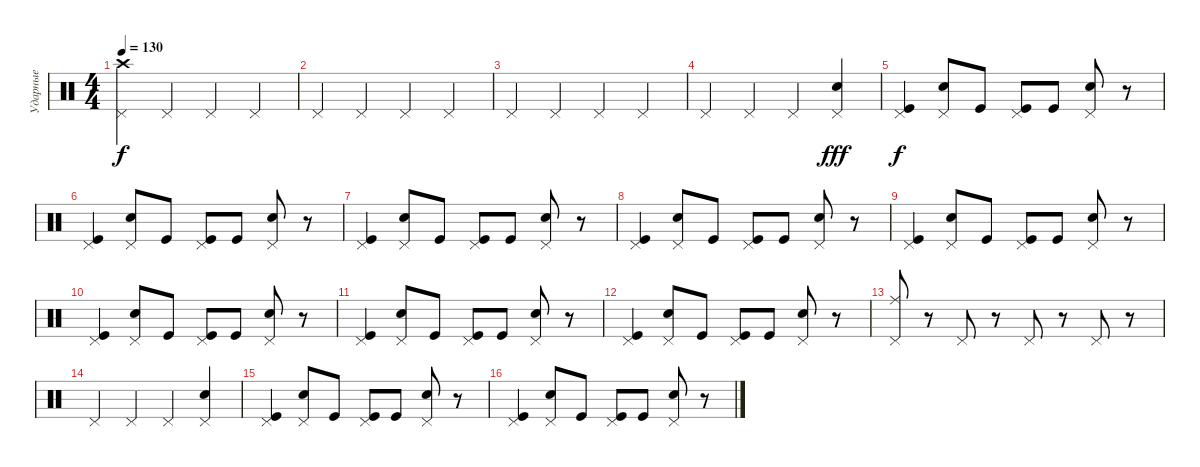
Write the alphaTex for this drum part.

\track ("Ударные" "Ударные") {instrument percussion}
\staff {score}
\articulation defaults
\ts (4 4)
\tempo 130
\clef neutral
\ks c
("Crash high (hit)" "Pedal Hi-Hat (hit)").4{dy f} "Pedal Hi-Hat (hit)".4 "Pedal Hi-Hat (hit)".4 "Pedal Hi-Hat (hit)".4 |
"Pedal Hi-Hat (hit)".4 "Pedal Hi-Hat (hit)".4 "Pedal Hi-Hat (hit)".4 "Pedal Hi-Hat (hit)".4 |
"Pedal Hi-Hat (hit)".4 "Pedal Hi-Hat (hit)".4 "Pedal Hi-Hat (hit)".4 "Pedal Hi-Hat (hit)".4 |
"Pedal Hi-Hat (hit)".4 "Pedal Hi-Hat (hit)".4 "Pedal Hi-Hat (hit)".4 ("Electric Snare (hit)" "Pedal Hi-Hat (hit)").4{dy fff} |
("Pedal Hi-Hat (hit)" "Kick (hit)").4{dy f} ("Pedal Hi-Hat (hit)" "Electric Snare (hit)").8 "Kick (hit)".8 ("Pedal Hi-Hat (hit)" "Kick (hit)").8 "Kick (hit)".8 ("Pedal Hi-Hat (hit)" "Electric Snare (hit)").8 r.8 |
("Pedal Hi-Hat (hit)" "Kick (hit)").4 ("Pedal Hi-Hat (hit)" "Electric Snare (hit)").8 "Kick (hit)".8 ("Pedal Hi-Hat (hit)" "Kick (hit)").8 "Kick (hit)".8 ("Pedal Hi-Hat (hit)" "Electric Snare (hit)").8 r.8 |
("Pedal Hi-Hat (hit)" "Kick (hit)").4 ("Pedal Hi-Hat (hit)" "Electric Snare (hit)").8 "Kick (hit)".8 ("Pedal Hi-Hat (hit)" "Kick (hit)").8 "Kick (hit)".8 ("Pedal Hi-Hat (hit)" "Electric Snare (hit)").8 r.8 |
("Pedal Hi-Hat (hit)" "Kick (hit)").4 ("Pedal Hi-Hat (hit)" "Electric Snare (hit)").8 "Kick (hit)".8 ("Pedal Hi-Hat (hit)" "Kick (hit)").8 "Kick (hit)".8 ("Pedal Hi-Hat (hit)" "Electric Snare (hit)").8 r.8 |
("Pedal Hi-Hat (hit)" "Kick (hit)").4 ("Pedal Hi-Hat (hit)" "Electric Snare (hit)").8 "Kick (hit)".8 ("Pedal Hi-Hat (hit)" "Kick (hit)").8 "Kick (hit)".8 ("Pedal Hi-Hat (hit)" "Electric Snare (hit)").8 r.8 |
("Pedal Hi-Hat (hit)" "Kick (hit)").4 ("Pedal Hi-Hat (hit)" "Electric Snare (hit)").8 "Kick (hit)".8 ("Pedal Hi-Hat (hit)" "Kick (hit)").8 "Kick (hit)".8 ("Pedal Hi-Hat (hit)" "Electric Snare (hit)").8 r.8 |
("Pedal Hi-Hat (hit)" "Kick (hit)").4 ("Pedal Hi-Hat (hit)" "Electric Snare (hit)").8 "Kick (hit)".8 ("Pedal Hi-Hat (hit)" "Kick (hit)").8 "Kick (hit)".8 ("Pedal Hi-Hat (hit)" "Electric Snare (hit)").8 r.8 |
("Pedal Hi-Hat (hit)" "Kick (hit)").4 ("Pedal Hi-Hat (hit)" "Electric Snare (hit)").8 "Kick (hit)".8 ("Pedal Hi-Hat (hit)" "Kick (hit)").8 "Kick (hit)".8 ("Pedal Hi-Hat (hit)" "Electric Snare (hit)").8 r.8 |
("Pedal Hi-Hat (hit)" "Ride (middle)").8 r.8 "Pedal Hi-Hat (hit)".8 r.8 "Pedal Hi-Hat (hit)".8 r.8 "Pedal Hi-Hat (hit)".8 r.8 |
"Pedal Hi-Hat (hit)".4 "Pedal Hi-Hat (hit)".4 "Pedal Hi-Hat (hit)".4 ("Electric Snare (hit)" "Pedal Hi-Hat (hit)").4 |
("Pedal Hi-Hat (hit)" "Kick (hit)").4 ("Pedal Hi-Hat (hit)" "Electric Snare (hit)").8 "Kick (hit)".8 ("Pedal Hi-Hat (hit)" "Kick (hit)").8 "Kick (hit)".8 ("Pedal Hi-Hat (hit)" "Electric Snare (hit)").8 r.8 |
("Pedal Hi-Hat (hit)" "Kick (hit)").4 ("Pedal Hi-Hat (hit)" "Electric Snare (hit)").8 "Kick (hit)".8 ("Pedal Hi-Hat (hit)" "Kick (hit)").8 "Kick (hit)".8 ("Pedal Hi-Hat (hit)" "Electric Snare (hit)").8 r.8
